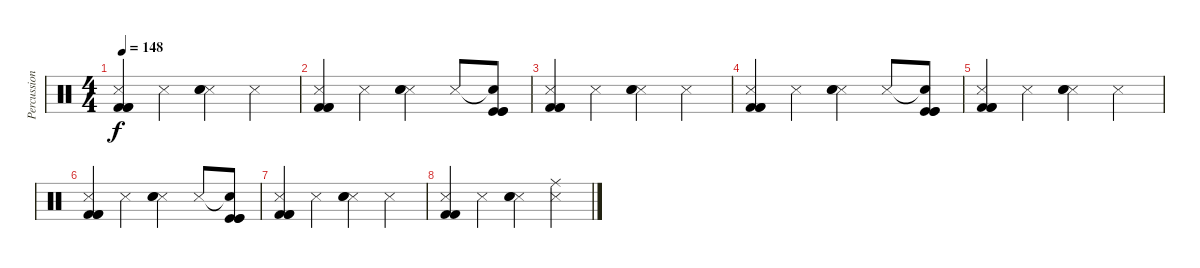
\track ("Percussion" "Percussion") {instrument percussion}
\staff {score}
\articulation defaults
\ts (4 4)
\tempo 148
\clef neutral
\ks c
("Snare (side stick) 3" "Kick (hit) 2" "Kick (hit) 2" "Kick (hit) 2").4{dy f} "Snare (side stick) 3".4 ("Snare (side stick) 3" "Electric Snare (hit)" "Electric Snare (hit)").4 "Snare (side stick) 3".4 |
("Snare (side stick) 3" "Kick (hit) 2" "Kick (hit) 2" "Kick (hit) 2").4 "Snare (side stick) 3".4 ("Snare (side stick) 3" "Electric Snare (hit)" "Electric Snare (hit)").4 "Snare (side stick) 3".8 ("Snare (hit)"{t} "Kick (hit)" "Kick (hit)" "Kick (hit)").8 |
("Snare (side stick) 3" "Kick (hit) 2" "Kick (hit) 2" "Kick (hit) 2").4 "Snare (side stick) 3".4 ("Snare (side stick) 3" "Electric Snare (hit)" "Electric Snare (hit)").4 "Snare (side stick) 3".4 |
("Snare (side stick) 3" "Kick (hit) 2" "Kick (hit) 2" "Kick (hit) 2").4 "Snare (side stick) 3".4 ("Snare (side stick) 3" "Electric Snare (hit)" "Electric Snare (hit)").4 "Snare (side stick) 3".8 ("Snare (hit)"{t} "Kick (hit)" "Kick (hit)" "Kick (hit)").8 |
("Snare (side stick) 3" "Kick (hit) 2" "Kick (hit) 2" "Kick (hit) 2").4 "Snare (side stick) 3".4 ("Snare (side stick) 3" "Electric Snare (hit)" "Electric Snare (hit)").4 "Snare (side stick) 3".4 |
("Snare (side stick) 3" "Kick (hit) 2" "Kick (hit) 2" "Kick (hit) 2").4 "Snare (side stick) 3".4 ("Snare (side stick) 3" "Electric Snare (hit)" "Electric Snare (hit)").4 "Snare (side stick) 3".8 ("Snare (hit)"{t} "Kick (hit)" "Kick (hit)" "Kick (hit)").8 |
("Snare (side stick) 3" "Kick (hit) 2" "Kick (hit) 2" "Kick (hit) 2").4 "Snare (side stick) 3".4 ("Snare (side stick) 3" "Electric Snare (hit)" "Electric Snare (hit)").4 "Snare (side stick) 3".4 |
("Snare (side stick) 3" "Kick (hit) 2" "Kick (hit) 2").4 "Snare (side stick) 3".4 ("Snare (side stick) 3" "Electric Snare (hit)" "Electric Snare (hit)").4 ("Snare (side stick) 3" "Ride (middle)").4
